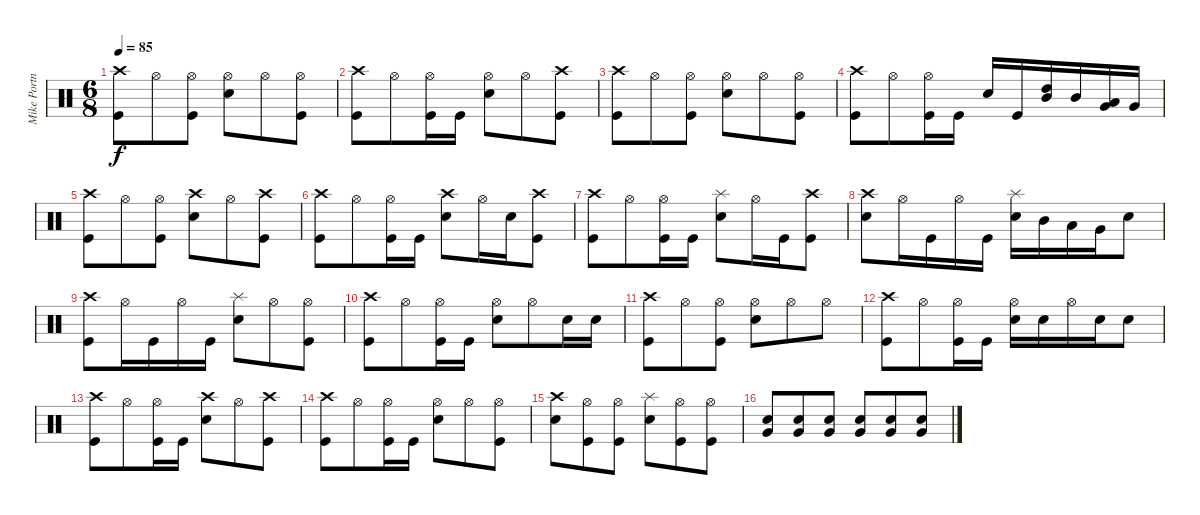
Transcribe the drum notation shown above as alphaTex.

\track ("Mike Portnoy" "Mike Portn") {instrument percussion}
\staff {score}
\articulation defaults
\ts (6 8)
\tempo 85
\clef neutral
\ks c
("Crash high (hit)" "Kick (hit)").8{dy f} "Hi-Hat (open)".8 ("Hi-Hat (open)" "Kick (hit)").8 ("Hi-Hat (open)" "Electric Snare (hit)").8 "Hi-Hat (open)".8 ("Hi-Hat (open)" "Kick (hit)").8 |
("Crash high (hit)" "Kick (hit)").8 "Hi-Hat (open)".8 ("Hi-Hat (open)" "Kick (hit)").16 "Kick (hit)".16 ("Hi-Hat (open)" "Electric Snare (hit)").8 "Hi-Hat (open)".8 ("Crash high (hit)" "Kick (hit)").8 |
("Crash high (hit)" "Kick (hit)").8 "Hi-Hat (open)".8 ("Hi-Hat (open)" "Kick (hit)").8 ("Hi-Hat (open)" "Electric Snare (hit)").8 "Hi-Hat (open)".8 ("Hi-Hat (open)" "Kick (hit)").8 |
("Crash high (hit)" "Kick (hit)").8 "Hi-Hat (open)".8 ("Hi-Hat (open)" "Kick (hit)").16 "Kick (hit)".16 "Electric Snare (hit)".16 "Kick (hit)".16 ("High Tom (hit)" "Mid Tom (hit)").16 "Mid Tom (hit)".16 ("Low Tom (hit)" "Very Low Tom (hit)").16 "Very Low Tom (hit)".16 |
("Crash high (hit)" "Kick (hit)").8 "Hi-Hat (open)".8 ("Hi-Hat (open)" "Kick (hit)").8 ("Crash high (hit)" "Electric Snare (hit)").8 "Hi-Hat (open)".8 ("Crash high (hit)" "Kick (hit)").8 |
("Crash high (hit)" "Kick (hit)").8 "Hi-Hat (open)".8 ("Hi-Hat (open)" "Kick (hit)").16 "Kick (hit)".16 ("Crash high (hit)" "Electric Snare (hit)").8 "Hi-Hat (open)".16 "Electric Snare (hit)".16 ("Crash high (hit)" "Kick (hit)").8 |
("Crash high (hit)" "Kick (hit)").8 "Hi-Hat (open)".8 ("Hi-Hat (open)" "Kick (hit)").16 "Kick (hit)".16 ("Splash (hit)" "Electric Snare (hit)").8 "Hi-Hat (open)".16 "Kick (hit)".16 ("Crash high (hit)" "Kick (hit)").8 |
("Crash high (hit)" "Electric Snare (hit)").8 "Hi-Hat (open)".16 "Kick (hit)".16 "Hi-Hat (open)".16 "Kick (hit)".16 ("Splash (hit)" "Electric Snare (hit)").16 "Mid Tom (hit)".16 "Low Tom (hit)".16 "Very Low Tom (hit)".16 "Electric Snare (hit)".8 |
("Crash high (hit)" "Kick (hit)").8 "Hi-Hat (open)".16 "Kick (hit)".16 "Hi-Hat (open)".16 "Kick (hit)".16 ("Splash (hit)" "Electric Snare (hit)").8 "Hi-Hat (open)".8 ("Hi-Hat (open)" "Kick (hit)").8 |
("Crash high (hit)" "Kick (hit)").8 "Hi-Hat (open)".8 ("Hi-Hat (open)" "Kick (hit)").16 "Kick (hit)".16 ("Hi-Hat (open)" "Electric Snare (hit)").8 "Hi-Hat (open)".8 "Electric Snare (hit)".16 "Electric Snare (hit)".16 |
("Crash high (hit)" "Kick (hit)").8 "Hi-Hat (open)".8 ("Hi-Hat (open)" "Kick (hit)").8 ("Hi-Hat (open)" "Electric Snare (hit)").8 "Hi-Hat (open)".8 "Hi-Hat (open)".8 |
("Crash high (hit)" "Kick (hit)").8 "Hi-Hat (open)".8 ("Hi-Hat (open)" "Kick (hit)").16 "Kick (hit)".16 ("Hi-Hat (open)" "Electric Snare (hit)").16 "Electric Snare (hit)".16 "Hi-Hat (open)".16 "Electric Snare (hit)".16 "Electric Snare (hit)".8 |
("Crash high (hit)" "Kick (hit)").8 "Hi-Hat (open)".8 ("Hi-Hat (open)" "Kick (hit)").16 "Kick (hit)".16 ("Crash high (hit)" "Electric Snare (hit)").8 "Hi-Hat (open)".8 ("Crash high (hit)" "Kick (hit)").8 |
("Crash high (hit)" "Kick (hit)").8 "Hi-Hat (open)".8 ("Hi-Hat (open)" "Kick (hit)").16 "Kick (hit)".16 ("Hi-Hat (open)" "Electric Snare (hit)").8 "Hi-Hat (open)".8 ("Hi-Hat (open)" "Kick (hit)").8 |
("Crash high (hit)" "Electric Snare (hit)").8 ("Hi-Hat (open)" "Kick (hit)").8 ("Hi-Hat (open)" "Kick (hit)").8 ("Splash (hit)" "Electric Snare (hit)").8 ("Hi-Hat (open)" "Kick (hit)").8 ("Hi-Hat (open)" "Kick (hit)").8 |
("Very Low Tom (hit)" "Electric Snare (hit)").8 ("Very Low Tom (hit)" "Electric Snare (hit)").8 ("Very Low Tom (hit)" "Electric Snare (hit)").8 ("Very Low Tom (hit)" "Electric Snare (hit)").8 ("Very Low Tom (hit)" "Electric Snare (hit)").8 ("Very Low Tom (hit)" "Electric Snare (hit)").8
